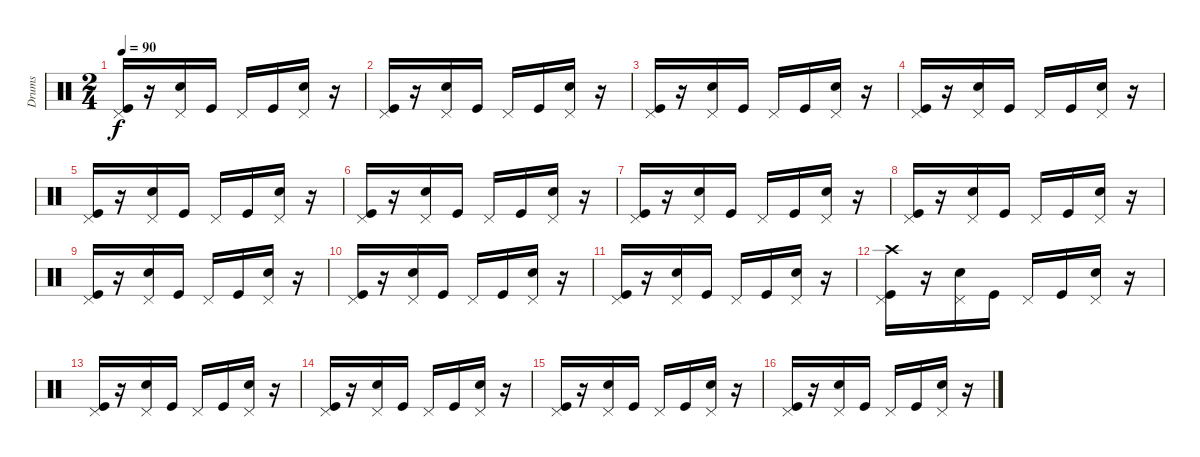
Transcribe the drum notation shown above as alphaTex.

\track ("Drums" "Drums") {instrument percussion}
\staff {score}
\articulation defaults
\ts (2 4)
\tempo 90
\clef neutral
\ks c
("Kick (hit)" "Pedal Hi-Hat (hit)").16{dy f} r.16 ("Snare (hit) 2" "Pedal Hi-Hat (hit)").16 "Kick (hit)".16 "Pedal Hi-Hat (hit)".16 "Kick (hit)".16 ("Snare (hit) 2" "Pedal Hi-Hat (hit)").16 r.16 |
("Kick (hit)" "Pedal Hi-Hat (hit)").16 r.16 ("Snare (hit) 2" "Pedal Hi-Hat (hit)").16 "Kick (hit)".16 "Pedal Hi-Hat (hit)".16 "Kick (hit)".16 ("Snare (hit) 2" "Pedal Hi-Hat (hit)").16 r.16 |
("Kick (hit)" "Pedal Hi-Hat (hit)").16 r.16 ("Snare (hit) 2" "Pedal Hi-Hat (hit)").16 "Kick (hit)".16 "Pedal Hi-Hat (hit)".16 "Kick (hit)".16 ("Snare (hit) 2" "Pedal Hi-Hat (hit)").16 r.16 |
("Kick (hit)" "Pedal Hi-Hat (hit)").16 r.16 ("Snare (hit) 2" "Pedal Hi-Hat (hit)").16 "Kick (hit)".16 "Pedal Hi-Hat (hit)".16 "Kick (hit)".16 ("Snare (hit) 2" "Pedal Hi-Hat (hit)").16 r.16 |
("Kick (hit)" "Pedal Hi-Hat (hit)").16 r.16 ("Snare (hit) 2" "Pedal Hi-Hat (hit)").16 "Kick (hit)".16 "Pedal Hi-Hat (hit)".16 "Kick (hit)".16 ("Snare (hit) 2" "Pedal Hi-Hat (hit)").16 r.16 |
("Kick (hit)" "Pedal Hi-Hat (hit)").16 r.16 ("Snare (hit) 2" "Pedal Hi-Hat (hit)").16 "Kick (hit)".16 "Pedal Hi-Hat (hit)".16 "Kick (hit)".16 ("Snare (hit) 2" "Pedal Hi-Hat (hit)").16 r.16 |
("Kick (hit)" "Pedal Hi-Hat (hit)").16 r.16 ("Snare (hit) 2" "Pedal Hi-Hat (hit)").16 "Kick (hit)".16 "Pedal Hi-Hat (hit)".16 "Kick (hit)".16 ("Snare (hit) 2" "Pedal Hi-Hat (hit)").16 r.16 |
("Kick (hit)" "Pedal Hi-Hat (hit)").16 r.16 ("Snare (hit) 2" "Pedal Hi-Hat (hit)").16 "Kick (hit)".16 "Pedal Hi-Hat (hit)".16 "Kick (hit)".16 ("Snare (hit) 2" "Pedal Hi-Hat (hit)").16 r.16 |
("Kick (hit)" "Pedal Hi-Hat (hit)").16 r.16 ("Snare (hit) 2" "Pedal Hi-Hat (hit)").16 "Kick (hit)".16 "Pedal Hi-Hat (hit)".16 "Kick (hit)".16 ("Snare (hit) 2" "Pedal Hi-Hat (hit)").16 r.16 |
("Kick (hit)" "Pedal Hi-Hat (hit)").16 r.16 ("Snare (hit) 2" "Pedal Hi-Hat (hit)").16 "Kick (hit)".16 "Pedal Hi-Hat (hit)".16 "Kick (hit)".16 ("Snare (hit) 2" "Pedal Hi-Hat (hit)").16 r.16 |
("Kick (hit)" "Pedal Hi-Hat (hit)").16 r.16 ("Snare (hit) 2" "Pedal Hi-Hat (hit)").16 "Kick (hit)".16 "Pedal Hi-Hat (hit)".16 "Kick (hit)".16 ("Snare (hit) 2" "Pedal Hi-Hat (hit)").16 r.16 |
("Crash high (hit)" "Kick (hit)" "Pedal Hi-Hat (hit)").16 r.16 ("Snare (hit) 2" "Pedal Hi-Hat (hit)").16 "Kick (hit)".16 "Pedal Hi-Hat (hit)".16 "Kick (hit)".16 ("Snare (hit) 2" "Pedal Hi-Hat (hit)").16 r.16 |
("Kick (hit)" "Pedal Hi-Hat (hit)").16 r.16 ("Snare (hit) 2" "Pedal Hi-Hat (hit)").16 "Kick (hit)".16 "Pedal Hi-Hat (hit)".16 "Kick (hit)".16 ("Snare (hit) 2" "Pedal Hi-Hat (hit)").16 r.16 |
("Kick (hit)" "Pedal Hi-Hat (hit)").16 r.16 ("Snare (hit) 2" "Pedal Hi-Hat (hit)").16 "Kick (hit)".16 "Pedal Hi-Hat (hit)".16 "Kick (hit)".16 ("Snare (hit) 2" "Pedal Hi-Hat (hit)").16 r.16 |
("Kick (hit)" "Pedal Hi-Hat (hit)").16 r.16 ("Snare (hit) 2" "Pedal Hi-Hat (hit)").16 "Kick (hit)".16 "Pedal Hi-Hat (hit)".16 "Kick (hit)".16 ("Snare (hit) 2" "Pedal Hi-Hat (hit)").16 r.16 |
("Kick (hit)" "Pedal Hi-Hat (hit)").16 r.16 ("Snare (hit) 2" "Pedal Hi-Hat (hit)").16 "Kick (hit)".16 "Pedal Hi-Hat (hit)".16 "Kick (hit)".16 ("Snare (hit) 2" "Pedal Hi-Hat (hit)").16 r.16
